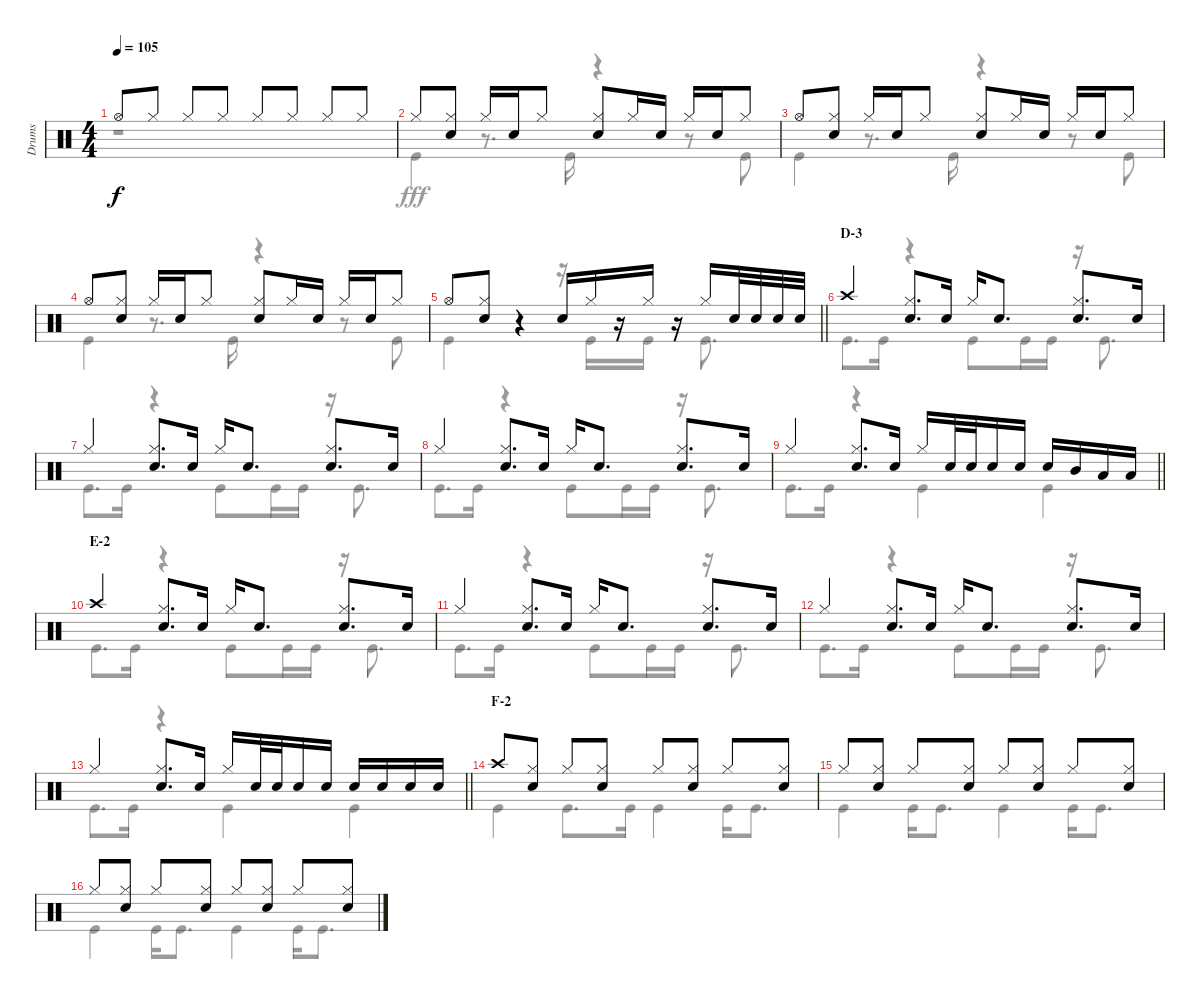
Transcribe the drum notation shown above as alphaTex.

\track ("Drums" "Drums") {instrument percussion}
\staff {score}
\articulation defaults
\voice
\ts (4 4)
\tempo 105
\clef neutral
\ks c "Hi-Hat (open)".8{dy f} "Hi-Hat (closed)".8 "Hi-Hat (closed)".8 "Hi-Hat (closed)".8 "Hi-Hat (closed)".8 "Hi-Hat (closed)".8 "Hi-Hat (closed)".8 "Hi-Hat (closed)".8
|
"Hi-Hat (closed)".8 ("Hi-Hat (closed)" "Snare (hit) 2").8 "Hi-Hat (closed)".16 "Snare (hit) 2".16 "Hi-Hat (closed)".8 ("Hi-Hat (closed)" "Snare (hit) 2").8 "Hi-Hat (closed)".16 "Snare (hit) 2".16 "Hi-Hat (closed)".16 "Snare (hit) 2".16 "Hi-Hat (closed)".8 |
"Hi-Hat (open)".8 ("Hi-Hat (closed)" "Snare (hit) 2").8 "Hi-Hat (closed)".16 "Snare (hit) 2".16 "Hi-Hat (closed)".8 ("Hi-Hat (closed)" "Snare (hit) 2").8 "Hi-Hat (closed)".16 "Snare (hit) 2".16 "Hi-Hat (closed)".16 "Snare (hit) 2".16 "Hi-Hat (closed)".8 |
"Hi-Hat (open)".8 ("Hi-Hat (closed)" "Snare (hit) 2").8 "Hi-Hat (closed)".16 "Snare (hit) 2".16 "Hi-Hat (closed)".8 ("Hi-Hat (closed)" "Snare (hit) 2").8 "Hi-Hat (closed)".16 "Snare (hit) 2".16 "Hi-Hat (closed)".16 "Snare (hit) 2".16 "Hi-Hat (closed)".8 |
\barLineRight lightlight "Hi-Hat (open)".8
("Hi-Hat (closed)" "Snare (hit) 2").8 r.4 "Snare (hit) 2".16 "Hi-Hat (closed)".16 r.16 "Hi-Hat (closed)".16 r.16 "Hi-Hat (closed)".16 "Snare (hit) 2".32 "Snare (hit) 2".32 "Snare (hit) 2".32 "Snare (hit) 2".32 |
\section ("" "D-3")
"Crash high (hit)".4 ("Hi-Hat (closed)" "Snare (hit) 2").8{d} "Snare (hit) 2".16 "Hi-Hat (closed)".16 "Snare (hit) 2".8{d} ("Hi-Hat (closed)" "Snare (hit) 2").8{d} "Snare (hit) 2".16 |
"Hi-Hat (closed)".4 ("Hi-Hat (closed)" "Snare (hit) 2").8{d} "Snare (hit) 2".16 "Hi-Hat (closed)".16 "Snare (hit) 2".8{d} ("Hi-Hat (closed)" "Snare (hit) 2").8{d} "Snare (hit) 2".16 |
"Hi-Hat (closed)".4 ("Hi-Hat (closed)" "Snare (hit) 2").8{d} "Snare (hit) 2".16 "Hi-Hat (closed)".16 "Snare (hit) 2".8{d} ("Hi-Hat (closed)" "Snare (hit) 2").8{d} "Snare (hit) 2".16 |
\barLineRight lightlight "Hi-Hat (closed)".4
("Hi-Hat (closed)" "Snare (hit) 2").8{d} "Snare (hit) 2".16 "Hi-Hat (closed)".16 "Snare (hit) 2".32 "Snare (hit) 2".32 "Snare (hit) 2".16 "Snare (hit) 2".16 "Snare (hit) 2".16 "Mid Tom (hit)".16 "Low Tom (hit)".16 "Low Tom (hit)".16 |
\section ("" "E-2")
"Crash high (hit)".4 ("Hi-Hat (closed)" "Snare (hit) 2").8{d} "Snare (hit) 2".16 "Hi-Hat (closed)".16 "Snare (hit) 2".8{d} ("Hi-Hat (closed)" "Snare (hit) 2").8{d} "Snare (hit) 2".16 |
"Hi-Hat (closed)".4 ("Hi-Hat (closed)" "Snare (hit) 2").8{d} "Snare (hit) 2".16 "Hi-Hat (closed)".16 "Snare (hit) 2".8{d} ("Hi-Hat (closed)" "Snare (hit) 2").8{d} "Snare (hit) 2".16 |
"Hi-Hat (closed)".4 ("Hi-Hat (closed)" "Snare (hit) 2").8{d} "Snare (hit) 2".16 "Hi-Hat (closed)".16 "Snare (hit) 2".8{d} ("Hi-Hat (closed)" "Snare (hit) 2").8{d} "Snare (hit) 2".16 |
\barLineRight lightlight "Hi-Hat (closed)".4
("Hi-Hat (closed)" "Snare (hit) 2").8{d} "Snare (hit) 2".16 "Hi-Hat (closed)".16 "Snare (hit) 2".32 "Snare (hit) 2".32 "Snare (hit) 2".16 "Snare (hit) 2".16 "Snare (hit) 2".16 "Snare (hit) 2".16 "Snare (hit) 2".16 "Snare (hit) 2".16 |
\section ("" "F-2")
"Crash high (hit)".8 ("Hi-Hat (closed)" "Snare (hit) 2").8 "Hi-Hat (closed)".8 ("Hi-Hat (closed)" "Snare (hit) 2").8 "Hi-Hat (closed)".8 ("Hi-Hat (closed)" "Snare (hit) 2").8 "Hi-Hat (closed)".8 ("Hi-Hat (closed)" "Snare (hit) 2").8 |
"Hi-Hat (closed)".8 ("Hi-Hat (closed)" "Snare (hit) 2").8 "Hi-Hat (closed)".8 ("Hi-Hat (closed)" "Snare (hit) 2").8 "Hi-Hat (closed)".8 ("Hi-Hat (closed)" "Snare (hit) 2").8 "Hi-Hat (closed)".8 ("Hi-Hat (closed)" "Snare (hit) 2").8 |
"Hi-Hat (closed)".8 ("Hi-Hat (closed)" "Snare (hit) 2").8 "Hi-Hat (closed)".8 ("Hi-Hat (closed)" "Snare (hit) 2").8 "Hi-Hat (closed)".8 ("Hi-Hat (closed)" "Snare (hit) 2").8 "Hi-Hat (closed)".8 ("Hi-Hat (closed)" "Snare (hit) 2").8
\voice
\clef neutral
\ottava regular
\simile none
\ks c
r.1{dy fff} |
"Kick (hit)".4 r.8{d} "Kick (hit)".16 r.4 r.8 "Kick (hit)".8 |
"Kick (hit)".4 r.8{d} "Kick (hit)".16 r.4 r.8 "Kick (hit)".8 |
"Kick (hit)".4 r.8{d} "Kick (hit)".16 r.4 r.8 "Kick (hit)".8 |
\barLineRight lightlight "Kick (hit)".4
r.4 r.16 "Kick (hit)".16 r.16 "Kick (hit)".16 r.16 "Kick (hit)".8{d} |
"Kick (hit)".8{d} "Kick (hit)".16 r.4 "Kick (hit)".8 "Kick (hit)".16 "Kick (hit)".16 r.16 "Kick (hit)".8{d} |
"Kick (hit)".8{d} "Kick (hit)".16 r.4 "Kick (hit)".8 "Kick (hit)".16 "Kick (hit)".16 r.16 "Kick (hit)".8{d} |
"Kick (hit)".8{d} "Kick (hit)".16 r.4 "Kick (hit)".8 "Kick (hit)".16 "Kick (hit)".16 r.16 "Kick (hit)".8{d} |
\barLineRight lightlight "Kick (hit)".8{d} "Kick (hit)".16
r.4 "Kick (hit)".4 "Kick (hit)".4 |
"Kick (hit)".8{d} "Kick (hit)".16 r.4 "Kick (hit)".8 "Kick (hit)".16 "Kick (hit)".16 r.16 "Kick (hit)".8{d} |
"Kick (hit)".8{d} "Kick (hit)".16 r.4 "Kick (hit)".8 "Kick (hit)".16 "Kick (hit)".16 r.16 "Kick (hit)".8{d} |
"Kick (hit)".8{d} "Kick (hit)".16 r.4 "Kick (hit)".8 "Kick (hit)".16 "Kick (hit)".16 r.16 "Kick (hit)".8{d} |
\barLineRight lightlight "Kick (hit)".8{d} "Kick (hit)".16
r.4 "Kick (hit)".4 "Kick (hit)".4 |
"Kick (hit)".4 "Kick (hit)".8{d} "Kick (hit)".16 "Kick (hit)".4 "Kick (hit)".16 "Kick (hit)".8{d} |
"Kick (hit)".4 "Kick (hit)".16 "Kick (hit)".8{d} "Kick (hit)".4 "Kick (hit)".16 "Kick (hit)".8{d} |
"Kick (hit)".4 "Kick (hit)".16 "Kick (hit)".8{d} "Kick (hit)".4 "Kick (hit)".16 "Kick (hit)".8{d}
